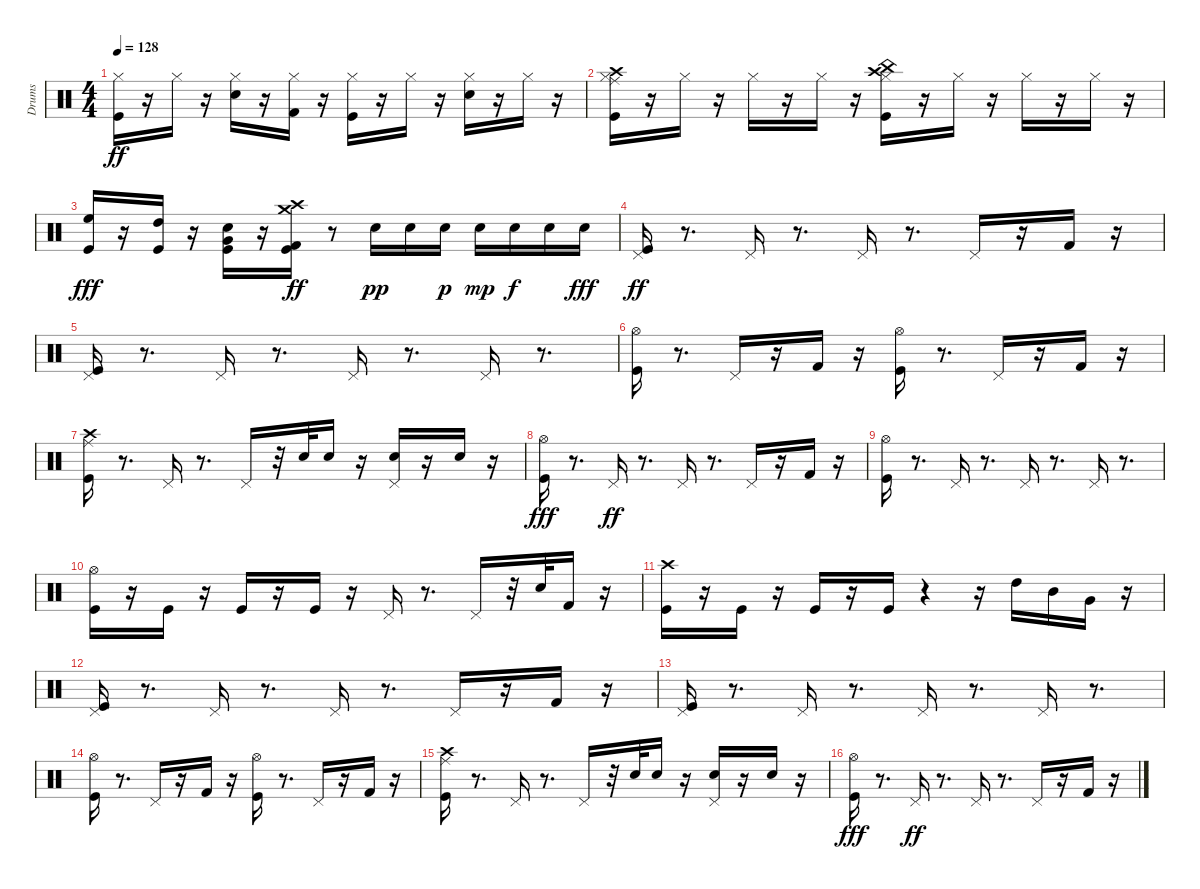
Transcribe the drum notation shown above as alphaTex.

\track ("Drums" "Drums") {instrument percussion}
\staff {score}
\articulation defaults
\ts (4 4)
\tempo 128
\clef neutral
\ks c
("Kick (hit)" "Hi-Hat (closed)").16{dy ff} r.16 "Hi-Hat (closed)".16 r.16 ("Snare (hit) 2" "Hi-Hat (closed)").16 r.16 ("Kick (hit) 2" "Hi-Hat (closed)").16 r.16 ("Kick (hit)" "Hi-Hat (closed)").16 r.16 "Hi-Hat (closed)".16 r.16 ("Snare (hit) 2" "Hi-Hat (closed)").16 r.16 "Hi-Hat (closed)".16 r.16 |
("Kick (hit)" "Hi-Hat (closed)" "Crash high (hit)" "Ride (middle)").16 r.16 "Hi-Hat (closed)".16 r.16 "Hi-Hat (closed)".16 r.16 "Hi-Hat (closed)".16 r.16 ("Kick (hit)" "Hi-Hat (closed)" "Crash high (hit)" "China (hit)").16 r.16 "Hi-Hat (closed)".16 r.16 "Hi-Hat (closed)".16 r.16 "Hi-Hat (closed)".16 r.16 |
("Kick (hit)" "High Floor Tom (hit)").16{dy fff} r.16 ("Kick (hit)" "High Tom (hit)").16 r.16 ("Kick (hit)" "Snare (hit) 2" "Very Low Tom (hit)").16 r.16 ("Kick (hit)" "Kick (hit) 2" "Crash high (hit)" "Crash medium (hit)").16{dy ff} r.8 "Electric Snare (hit)".16{dy pp} "Electric Snare (hit)".16 "Electric Snare (hit)".16{dy p} "Electric Snare (hit)".16{dy mp} "Electric Snare (hit)".16{dy f} "Electric Snare (hit)".16 "Electric Snare (hit)".16{dy fff} |
("Kick (hit)" "Pedal Hi-Hat (hit)").16{dy ff} r.8{d} "Pedal Hi-Hat (hit)".16 r.8{d} "Pedal Hi-Hat (hit)".16 r.8{d} "Pedal Hi-Hat (hit)".16 r.16 "Kick (hit) 2".16 r.16 |
("Kick (hit)" "Pedal Hi-Hat (hit)").16 r.8{d} "Pedal Hi-Hat (hit)".16 r.8{d} "Pedal Hi-Hat (hit)".16 r.8{d} "Pedal Hi-Hat (hit)".16 r.8{d} |
("Kick (hit)" "Hi-Hat (open)").16 r.8{d} "Pedal Hi-Hat (hit)".16 r.16 "Kick (hit) 2".16 r.16 ("Kick (hit)" "Hi-Hat (open)").16 r.8{d} "Pedal Hi-Hat (hit)".16 r.16 "Kick (hit) 2".16 r.16 |
("Kick (hit)" "Crash high (hit)" "Ride (middle)").16 r.8{d} "Pedal Hi-Hat (hit)".16 r.8{d} "Pedal Hi-Hat (hit)".16 r.32 "Electric Snare (hit)".32 "Snare (hit) 2".16 r.16 ("Snare (hit) 2" "Pedal Hi-Hat (hit)").16 r.16 "Snare (hit) 2".16 r.16 |
("Kick (hit)" "Hi-Hat (open)").16{dy fff} r.8{d} "Pedal Hi-Hat (hit)".16{dy ff} r.8{d} "Pedal Hi-Hat (hit)".16 r.8{d} "Pedal Hi-Hat (hit)".16 r.16 "Kick (hit) 2".16 r.16 |
("Kick (hit)" "Hi-Hat (open)").16 r.8{d} "Pedal Hi-Hat (hit)".16 r.8{d} "Pedal Hi-Hat (hit)".16 r.8{d} "Pedal Hi-Hat (hit)".16 r.8{d} |
("Kick (hit)" "Hi-Hat (open)").16 r.16 "Kick (hit)".16 r.16 "Kick (hit)".16 r.16 "Kick (hit)".16 r.16 "Pedal Hi-Hat (hit)".16 r.8{d} "Pedal Hi-Hat (hit)".16 r.32 "Electric Snare (hit)".32 "Kick (hit) 2".16 r.16 |
("Kick (hit)" "Crash high (hit)").16 r.16 "Kick (hit)".16 r.16 "Kick (hit)".16 r.16 "Kick (hit)".16 r.4 r.16 "High Tom (hit)".16 "Mid Tom (hit)".16 "Very Low Tom (hit)".16 r.16 |
("Kick (hit)" "Pedal Hi-Hat (hit)").16 r.8{d} "Pedal Hi-Hat (hit)".16 r.8{d} "Pedal Hi-Hat (hit)".16 r.8{d} "Pedal Hi-Hat (hit)".16 r.16 "Kick (hit) 2".16 r.16 |
("Kick (hit)" "Pedal Hi-Hat (hit)").16 r.8{d} "Pedal Hi-Hat (hit)".16 r.8{d} "Pedal Hi-Hat (hit)".16 r.8{d} "Pedal Hi-Hat (hit)".16 r.8{d} |
("Kick (hit)" "Hi-Hat (open)").16 r.8{d} "Pedal Hi-Hat (hit)".16 r.16 "Kick (hit) 2".16 r.16 ("Kick (hit)" "Hi-Hat (open)").16 r.8{d} "Pedal Hi-Hat (hit)".16 r.16 "Kick (hit) 2".16 r.16 |
("Kick (hit)" "Crash high (hit)" "Ride (middle)").16 r.8{d} "Pedal Hi-Hat (hit)".16 r.8{d} "Pedal Hi-Hat (hit)".16 r.32 "Electric Snare (hit)".32 "Snare (hit) 2".16 r.16 ("Snare (hit) 2" "Pedal Hi-Hat (hit)").16 r.16 "Snare (hit) 2".16 r.16 |
("Kick (hit)" "Hi-Hat (open)").16{dy fff} r.8{d} "Pedal Hi-Hat (hit)".16{dy ff} r.8{d} "Pedal Hi-Hat (hit)".16 r.8{d} "Pedal Hi-Hat (hit)".16 r.16 "Kick (hit) 2".16 r.16
